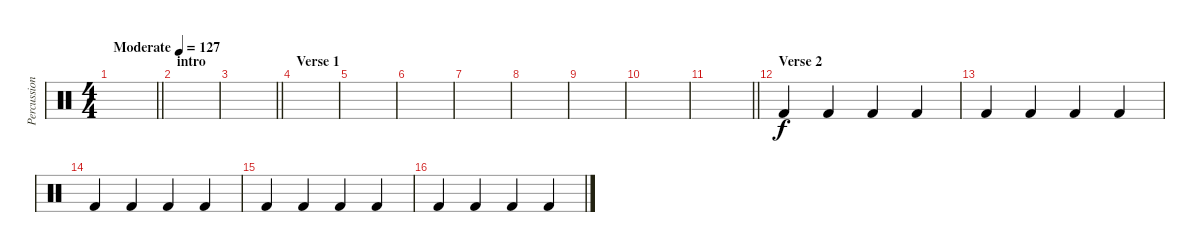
\track ("Percussion" "Percussion") {instrument percussion}
\staff {score}
\articulation defaults
\ts (4 4)
\tempo (127 "Moderate")
\clef neutral
\barLineRight lightlight
\ks c
|
\section ("" "intro")
|
\barLineRight lightlight
|
\section ("" "Verse 1")
|
|
|
|
|
|
|
\barLineRight lightlight
|
\section ("" "Verse 2")
"Kick (hit) 2".4 "Kick (hit) 2".4 "Kick (hit) 2".4 "Kick (hit) 2".4 |
"Kick (hit) 2".4 "Kick (hit) 2".4 "Kick (hit) 2".4 "Kick (hit) 2".4 |
"Kick (hit) 2".4 "Kick (hit) 2".4 "Kick (hit) 2".4 "Kick (hit) 2".4 |
"Kick (hit) 2".4 "Kick (hit) 2".4 "Kick (hit) 2".4 "Kick (hit) 2".4 |
"Kick (hit) 2".4 "Kick (hit) 2".4 "Kick (hit) 2".4 "Kick (hit) 2".4
